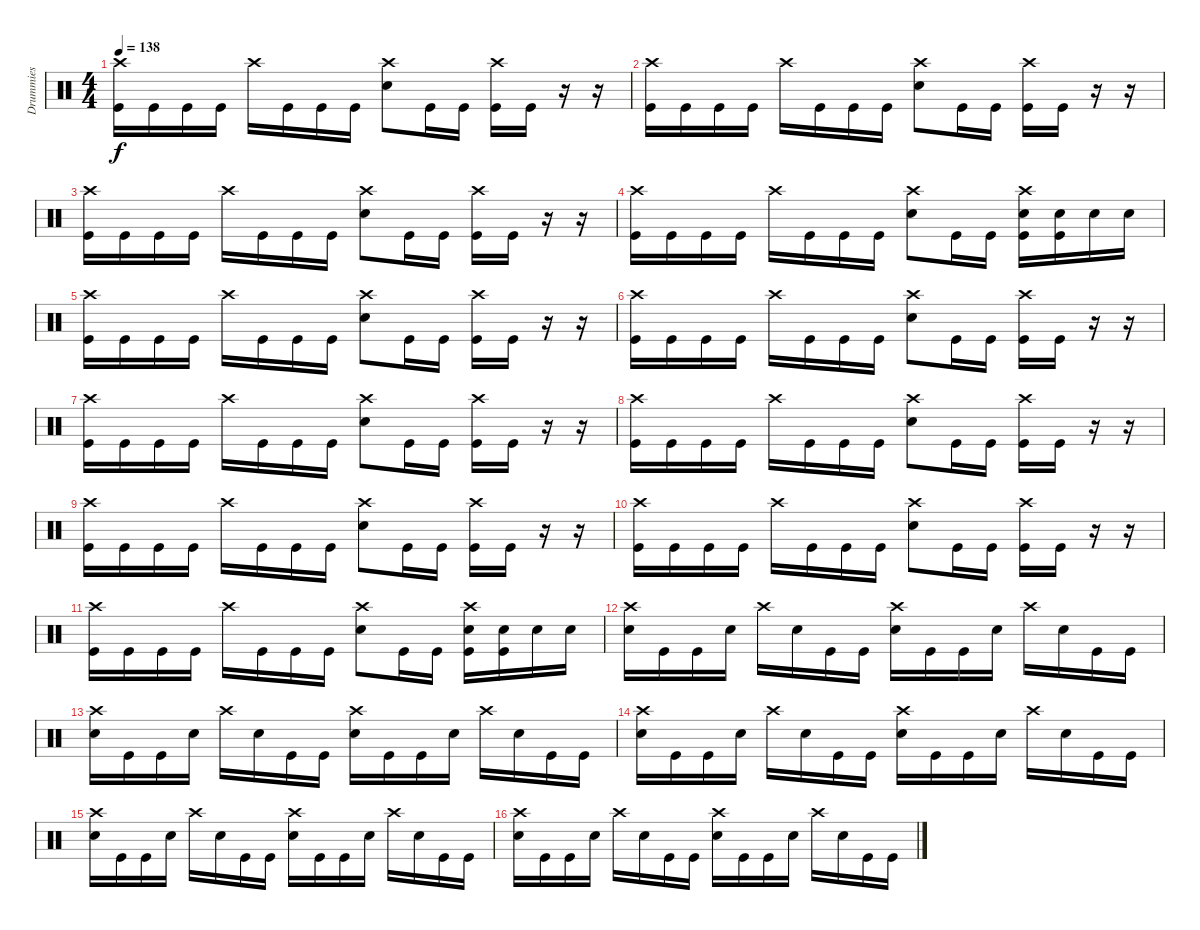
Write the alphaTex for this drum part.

\track ("Drummies" "Drummies") {instrument percussion}
\staff {score}
\articulation defaults
\ts (4 4)
\tempo 138
\clef neutral
\ks c
("Crash high (hit)" "Kick (hit)").16{dy f} "Kick (hit)".16 "Kick (hit)".16 "Kick (hit)".16 "Crash high (hit)".16 "Kick (hit)".16 "Kick (hit)".16 "Kick (hit)".16 ("Crash high (hit)" "Electric Snare (hit)").8 "Kick (hit)".16 "Kick (hit)".16 ("Crash high (hit)" "Kick (hit)").16 "Kick (hit)".16 r.16 r.16 |
("Crash high (hit)" "Kick (hit)").16 "Kick (hit)".16 "Kick (hit)".16 "Kick (hit)".16 "Crash high (hit)".16 "Kick (hit)".16 "Kick (hit)".16 "Kick (hit)".16 ("Crash high (hit)" "Electric Snare (hit)").8 "Kick (hit)".16 "Kick (hit)".16 ("Crash high (hit)" "Kick (hit)").16 "Kick (hit)".16 r.16 r.16 |
("Crash high (hit)" "Kick (hit)").16 "Kick (hit)".16 "Kick (hit)".16 "Kick (hit)".16 "Crash high (hit)".16 "Kick (hit)".16 "Kick (hit)".16 "Kick (hit)".16 ("Crash high (hit)" "Electric Snare (hit)").8 "Kick (hit)".16 "Kick (hit)".16 ("Crash high (hit)" "Kick (hit)").16 "Kick (hit)".16 r.16 r.16 |
("Crash high (hit)" "Kick (hit)").16 "Kick (hit)".16 "Kick (hit)".16 "Kick (hit)".16 "Crash high (hit)".16 "Kick (hit)".16 "Kick (hit)".16 "Kick (hit)".16 ("Crash high (hit)" "Electric Snare (hit)").8 "Kick (hit)".16 "Kick (hit)".16 ("Crash high (hit)" "Electric Snare (hit)" "Kick (hit)").16 ("Electric Snare (hit)" "Kick (hit)").16 "Electric Snare (hit)".16 "Electric Snare (hit)".16 |
("Crash high (hit)" "Kick (hit)").16 "Kick (hit)".16 "Kick (hit)".16 "Kick (hit)".16 "Crash high (hit)".16 "Kick (hit)".16 "Kick (hit)".16 "Kick (hit)".16 ("Crash high (hit)" "Electric Snare (hit)").8 "Kick (hit)".16 "Kick (hit)".16 ("Crash high (hit)" "Kick (hit)").16 "Kick (hit)".16 r.16 r.16 |
("Crash high (hit)" "Kick (hit)").16 "Kick (hit)".16 "Kick (hit)".16 "Kick (hit)".16 "Crash high (hit)".16 "Kick (hit)".16 "Kick (hit)".16 "Kick (hit)".16 ("Crash high (hit)" "Electric Snare (hit)").8 "Kick (hit)".16 "Kick (hit)".16 ("Crash high (hit)" "Kick (hit)").16 "Kick (hit)".16 r.16 r.16 |
("Crash high (hit)" "Kick (hit)").16 "Kick (hit)".16 "Kick (hit)".16 "Kick (hit)".16 "Crash high (hit)".16 "Kick (hit)".16 "Kick (hit)".16 "Kick (hit)".16 ("Crash high (hit)" "Electric Snare (hit)").8 "Kick (hit)".16 "Kick (hit)".16 ("Crash high (hit)" "Kick (hit)").16 "Kick (hit)".16 r.16 r.16 |
("Crash high (hit)" "Kick (hit)").16 "Kick (hit)".16 "Kick (hit)".16 "Kick (hit)".16 "Crash high (hit)".16 "Kick (hit)".16 "Kick (hit)".16 "Kick (hit)".16 ("Crash high (hit)" "Electric Snare (hit)").8 "Kick (hit)".16 "Kick (hit)".16 ("Crash high (hit)" "Kick (hit)").16 "Kick (hit)".16 r.16 r.16 |
("Crash high (hit)" "Kick (hit)").16 "Kick (hit)".16 "Kick (hit)".16 "Kick (hit)".16 "Crash high (hit)".16 "Kick (hit)".16 "Kick (hit)".16 "Kick (hit)".16 ("Crash high (hit)" "Electric Snare (hit)").8 "Kick (hit)".16 "Kick (hit)".16 ("Crash high (hit)" "Kick (hit)").16 "Kick (hit)".16 r.16 r.16 |
("Crash high (hit)" "Kick (hit)").16 "Kick (hit)".16 "Kick (hit)".16 "Kick (hit)".16 "Crash high (hit)".16 "Kick (hit)".16 "Kick (hit)".16 "Kick (hit)".16 ("Crash high (hit)" "Electric Snare (hit)").8 "Kick (hit)".16 "Kick (hit)".16 ("Crash high (hit)" "Kick (hit)").16 "Kick (hit)".16 r.16 r.16 |
("Crash high (hit)" "Kick (hit)").16 "Kick (hit)".16 "Kick (hit)".16 "Kick (hit)".16 "Crash high (hit)".16 "Kick (hit)".16 "Kick (hit)".16 "Kick (hit)".16 ("Crash high (hit)" "Electric Snare (hit)").8 "Kick (hit)".16 "Kick (hit)".16 ("Crash high (hit)" "Electric Snare (hit)" "Kick (hit)").16 ("Electric Snare (hit)" "Kick (hit)").16 "Electric Snare (hit)".16 "Electric Snare (hit)".16 |
("Crash high (hit)" "Electric Snare (hit)").16 "Kick (hit)".16 "Kick (hit)".16 "Electric Snare (hit)".16 "Crash high (hit)".16 "Electric Snare (hit)".16 "Kick (hit)".16 "Kick (hit)".16 ("Crash high (hit)" "Electric Snare (hit)").16 "Kick (hit)".16 "Kick (hit)".16 "Electric Snare (hit)".16 "Crash high (hit)".16 "Electric Snare (hit)".16 "Kick (hit)".16 "Kick (hit)".16 |
("Crash high (hit)" "Electric Snare (hit)").16 "Kick (hit)".16 "Kick (hit)".16 "Electric Snare (hit)".16 "Crash high (hit)".16 "Electric Snare (hit)".16 "Kick (hit)".16 "Kick (hit)".16 ("Crash high (hit)" "Electric Snare (hit)").16 "Kick (hit)".16 "Kick (hit)".16 "Electric Snare (hit)".16 "Crash high (hit)".16 "Electric Snare (hit)".16 "Kick (hit)".16 "Kick (hit)".16 |
("Crash high (hit)" "Electric Snare (hit)").16 "Kick (hit)".16 "Kick (hit)".16 "Electric Snare (hit)".16 "Crash high (hit)".16 "Electric Snare (hit)".16 "Kick (hit)".16 "Kick (hit)".16 ("Crash high (hit)" "Electric Snare (hit)").16 "Kick (hit)".16 "Kick (hit)".16 "Electric Snare (hit)".16 "Crash high (hit)".16 "Electric Snare (hit)".16 "Kick (hit)".16 "Kick (hit)".16 |
("Crash high (hit)" "Electric Snare (hit)").16 "Kick (hit)".16 "Kick (hit)".16 "Electric Snare (hit)".16 "Crash high (hit)".16 "Electric Snare (hit)".16 "Kick (hit)".16 "Kick (hit)".16 ("Crash high (hit)" "Electric Snare (hit)").16 "Kick (hit)".16 "Kick (hit)".16 "Electric Snare (hit)".16 "Crash high (hit)".16 "Electric Snare (hit)".16 "Kick (hit)".16 "Kick (hit)".16 |
("Crash high (hit)" "Electric Snare (hit)").16 "Kick (hit)".16 "Kick (hit)".16 "Electric Snare (hit)".16 "Crash high (hit)".16 "Electric Snare (hit)".16 "Kick (hit)".16 "Kick (hit)".16 ("Crash high (hit)" "Electric Snare (hit)").16 "Kick (hit)".16 "Kick (hit)".16 "Electric Snare (hit)".16 "Crash high (hit)".16 "Electric Snare (hit)".16 "Kick (hit)".16 "Kick (hit)".16
